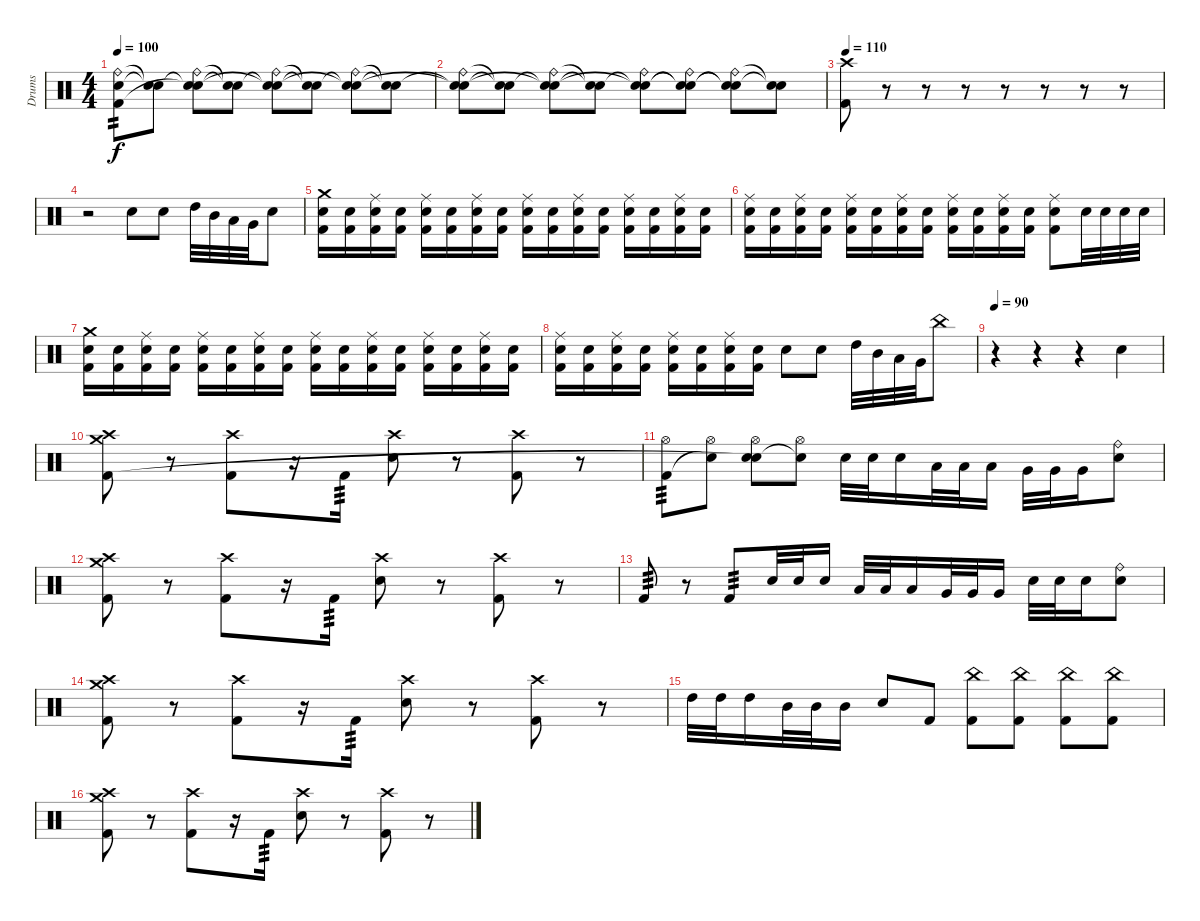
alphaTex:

\track ("Drums" "Drums") {instrument percussion}
\staff {score}
\articulation defaults
\ts (4 4)
\tempo 100
\clef neutral
\ks c
("Ride (bell)" "Electric Snare (hit)" "Kick (hit) 2").8{tp 2 dy f} ("Snare (hit)"{t} "Snare (hit)"{t}).8 ("Ride (bell)" "Snare (hit)"{t} "Snare (hit)"{t}).8 ("Snare (hit)"{t} "Snare (hit)"{t}).8 ("Ride (bell)" "Snare (hit)"{t} "Snare (hit)"{t}).8 ("Snare (hit)"{t} "Snare (hit)"{t}).8 ("Ride (bell)" "Snare (hit)"{t} "Snare (hit)"{t}).8 ("Snare (hit)"{t} "Snare (hit)"{t}).8 |
("Ride (bell)" "Snare (hit)"{t} "Snare (hit)"{t}).8 ("Snare (hit)"{t} "Snare (hit)"{t}).8 ("Ride (bell)" "Snare (hit)"{t} "Snare (hit)"{t}).8 ("Snare (hit)"{t} "Snare (hit)"{t}).8 ("Ride (bell)" "Snare (hit)"{t} "Snare (hit)"{t}).8 ("Ride (bell)" "Snare (hit)"{t} "Snare (hit)"{t}).8 ("Ride (bell)" "Snare (hit)"{t} "Snare (hit)"{t}).8 ("Snare (hit)"{t} "Snare (hit)"{t}).8 |
\tempo 110
("Crash high (hit)" "Kick (hit) 2").8 r.8{volume 0} r.8 r.8 r.8 r.8 r.8 r.8 |
r.2 "Electric Snare (hit)".8{volume 13} "Electric Snare (hit)".8 "High Tom (hit)".32 "Mid Tom (hit)".32 "Low Tom (hit)".32 "Very Low Tom (hit)".32 "Electric Snare (hit)".8 |
("Crash medium (hit)" "Electric Snare (hit)" "Kick (hit) 2").16 ("Electric Snare (hit)" "Kick (hit) 2").16 ("Ride (middle)" "Electric Snare (hit)" "Kick (hit) 2").16 ("Electric Snare (hit)" "Kick (hit) 2").16 ("Ride (middle)" "Electric Snare (hit)" "Kick (hit) 2").16 ("Electric Snare (hit)" "Kick (hit) 2").16 ("Ride (middle)" "Electric Snare (hit)" "Kick (hit) 2").16 ("Electric Snare (hit)" "Kick (hit) 2").16 ("Ride (middle)" "Electric Snare (hit)" "Kick (hit) 2").16 ("Electric Snare (hit)" "Kick (hit) 2").16 ("Ride (middle)" "Electric Snare (hit)" "Kick (hit) 2").16 ("Electric Snare (hit)" "Kick (hit) 2").16 ("Ride (middle)" "Electric Snare (hit)" "Kick (hit) 2").16 ("Electric Snare (hit)" "Kick (hit) 2").16 ("Ride (middle)" "Electric Snare (hit)" "Kick (hit) 2").16 ("Electric Snare (hit)" "Kick (hit) 2").16 |
("Ride (middle)" "Electric Snare (hit)" "Kick (hit) 2").16 ("Electric Snare (hit)" "Kick (hit) 2").16 ("Ride (middle)" "Electric Snare (hit)" "Kick (hit) 2").16 ("Electric Snare (hit)" "Kick (hit) 2").16 ("Ride (middle)" "Electric Snare (hit)" "Kick (hit) 2").16 ("Electric Snare (hit)" "Kick (hit) 2").16 ("Ride (middle)" "Electric Snare (hit)" "Kick (hit) 2").16 ("Electric Snare (hit)" "Kick (hit) 2").16 ("Ride (middle)" "Electric Snare (hit)" "Kick (hit) 2").16 ("Electric Snare (hit)" "Kick (hit) 2").16 ("Ride (middle)" "Electric Snare (hit)" "Kick (hit) 2").16 ("Electric Snare (hit)" "Kick (hit) 2").16 ("Ride (middle)" "Electric Snare (hit)" "Kick (hit) 2").8 "Electric Snare (hit)".32 "Electric Snare (hit)".32 "Electric Snare (hit)".32 "Electric Snare (hit)".32 |
("Crash medium (hit)" "Electric Snare (hit)" "Kick (hit) 2").16 ("Electric Snare (hit)" "Kick (hit) 2").16 ("Ride (middle)" "Electric Snare (hit)" "Kick (hit) 2").16 ("Electric Snare (hit)" "Kick (hit) 2").16 ("Ride (middle)" "Electric Snare (hit)" "Kick (hit) 2").16 ("Electric Snare (hit)" "Kick (hit) 2").16 ("Ride (middle)" "Electric Snare (hit)" "Kick (hit) 2").16 ("Electric Snare (hit)" "Kick (hit) 2").16 ("Ride (middle)" "Electric Snare (hit)" "Kick (hit) 2").16 ("Electric Snare (hit)" "Kick (hit) 2").16 ("Ride (middle)" "Electric Snare (hit)" "Kick (hit) 2").16 ("Electric Snare (hit)" "Kick (hit) 2").16 ("Ride (middle)" "Electric Snare (hit)" "Kick (hit) 2").16 ("Electric Snare (hit)" "Kick (hit) 2").16 ("Ride (middle)" "Electric Snare (hit)" "Kick (hit) 2").16 ("Electric Snare (hit)" "Kick (hit) 2").16 |
("Ride (middle)" "Electric Snare (hit)" "Kick (hit) 2").16 ("Electric Snare (hit)" "Kick (hit) 2").16 ("Ride (middle)" "Electric Snare (hit)" "Kick (hit) 2").16 ("Electric Snare (hit)" "Kick (hit) 2").16 ("Ride (middle)" "Electric Snare (hit)" "Kick (hit) 2").16 ("Electric Snare (hit)" "Kick (hit) 2").16 ("Ride (middle)" "Electric Snare (hit)" "Kick (hit) 2").16 ("Electric Snare (hit)" "Kick (hit) 2").16 "Electric Snare (hit)".8 "Electric Snare (hit)".8 "High Tom (hit)".32 "Mid Tom (hit)".32 "Low Tom (hit)".32 "Very Low Tom (hit)".32 "China (hit)".8 |
\tempo 90
r.4 r.4 r.4 "Electric Snare (hit)".4 |
("Crash medium (hit)" "Crash high (hit)" "Kick (hit) 2").8 r.8 ("Crash high (hit)" "Kick (hit) 2").8 r.16 "Kick (hit) 2".16{tp 3} ("Crash high (hit)" "Electric Snare (hit)").8 r.8 ("Crash high (hit)" "Kick (hit) 2").8 r.8 |
("Hi-Hat (open)" "Kick (hit) 2").8{tp 3} ("Hi-Hat (open)" "Snare (hit)"{t}).8 ("Hi-Hat (open)" "Electric Snare (hit)" "Snare (hit)"{t}).8 ("Hi-Hat (open)" "Snare (hit)"{t}).8 "Electric Snare (hit)".32 "Electric Snare (hit)".32 "Electric Snare (hit)".16 "Low Tom (hit)".32 "Low Tom (hit)".32 "Low Tom (hit)".16 "Very Low Tom (hit)".32 "Very Low Tom (hit)".32 "Very Low Tom (hit)".16 ("Ride (bell)" "Electric Snare (hit)").8 |
("Crash medium (hit)" "Crash high (hit)" "Kick (hit) 2").8 r.8 ("Crash high (hit)" "Kick (hit) 2").8 r.16 "Kick (hit) 2".16{tp 3} ("Crash high (hit)" "Electric Snare (hit)").8 r.8 ("Crash high (hit)" "Kick (hit) 2").8 r.8 |
"Kick (hit) 2".8{tp 3} r.8 "Kick (hit) 2".8{tp 3} "Electric Snare (hit)".32 "Electric Snare (hit)".32 "Electric Snare (hit)".16 "Low Tom (hit)".32 "Low Tom (hit)".32 "Low Tom (hit)".16 "Very Low Tom (hit)".32 "Very Low Tom (hit)".32 "Very Low Tom (hit)".16 "Electric Snare (hit)".32 "Electric Snare (hit)".32 "Electric Snare (hit)".16 ("Ride (bell)" "Electric Snare (hit)").8 |
("Crash medium (hit)" "Crash high (hit)" "Kick (hit) 2").8 r.8 ("Crash high (hit)" "Kick (hit) 2").8 r.16 "Kick (hit) 2".16{tp 3} ("Crash high (hit)" "Electric Snare (hit)").8 r.8 ("Crash high (hit)" "Kick (hit) 2").8 r.8 |
"High Tom (hit)".32 "High Tom (hit)".32 "High Tom (hit)".16 "Mid Tom (hit)".32 "Mid Tom (hit)".32 "Mid Tom (hit)".16 "Electric Snare (hit)".8 "Kick (hit) 2".8 ("China (hit)" "Kick (hit) 2").8 ("China (hit)" "Kick (hit) 2").8 ("China (hit)" "Kick (hit) 2").8 ("China (hit)" "Kick (hit) 2").8 |
("Crash medium (hit)" "Crash high (hit)" "Kick (hit) 2").8 r.8 ("Crash high (hit)" "Kick (hit) 2").8 r.16 "Kick (hit) 2".16{tp 3} ("Crash high (hit)" "Electric Snare (hit)").8 r.8 ("Crash high (hit)" "Kick (hit) 2").8 r.8
